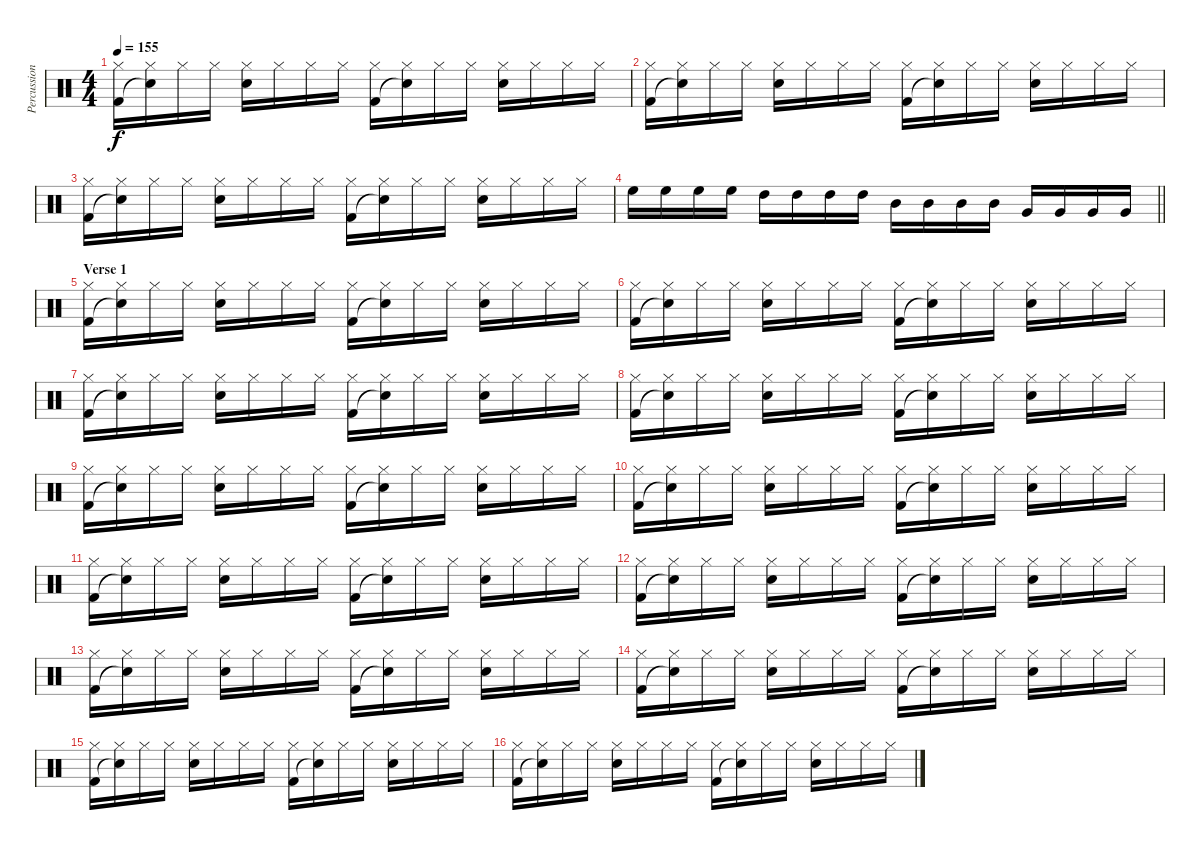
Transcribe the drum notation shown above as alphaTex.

\track ("Percussion" "Percussion") {instrument percussion}
\staff {score}
\articulation defaults
\ts (4 4)
\tempo 155
\clef neutral
\ks c
("Hi-Hat (closed)" "Kick (hit) 2").16{dy f} ("Hi-Hat (closed)" "Snare (hit)"{t}).16 "Hi-Hat (closed)".16 "Hi-Hat (closed)".16 ("Hi-Hat (closed)" "Snare (hit) 2").16 "Hi-Hat (closed)".16 "Hi-Hat (closed)".16 "Hi-Hat (closed)".16 ("Hi-Hat (closed)" "Kick (hit) 2").16 ("Hi-Hat (closed)" "Snare (hit)"{t}).16 "Hi-Hat (closed)".16 "Hi-Hat (closed)".16 ("Hi-Hat (closed)" "Snare (hit) 2").16 "Hi-Hat (closed)".16 "Hi-Hat (closed)".16 "Hi-Hat (closed)".16 |
("Hi-Hat (closed)" "Kick (hit) 2").16 ("Hi-Hat (closed)" "Snare (hit)"{t}).16 "Hi-Hat (closed)".16 "Hi-Hat (closed)".16 ("Hi-Hat (closed)" "Snare (hit) 2").16 "Hi-Hat (closed)".16 "Hi-Hat (closed)".16 "Hi-Hat (closed)".16 ("Hi-Hat (closed)" "Kick (hit) 2").16 ("Hi-Hat (closed)" "Snare (hit)"{t}).16 "Hi-Hat (closed)".16 "Hi-Hat (closed)".16 ("Hi-Hat (closed)" "Snare (hit) 2").16 "Hi-Hat (closed)".16 "Hi-Hat (closed)".16 "Hi-Hat (closed)".16 |
("Hi-Hat (closed)" "Kick (hit) 2").16 ("Hi-Hat (closed)" "Snare (hit)"{t}).16 "Hi-Hat (closed)".16 "Hi-Hat (closed)".16 ("Hi-Hat (closed)" "Snare (hit) 2").16 "Hi-Hat (closed)".16 "Hi-Hat (closed)".16 "Hi-Hat (closed)".16 ("Hi-Hat (closed)" "Kick (hit) 2").16 ("Hi-Hat (closed)" "Snare (hit)"{t}).16 "Hi-Hat (closed)".16 "Hi-Hat (closed)".16 ("Hi-Hat (closed)" "Snare (hit) 2").16 "Hi-Hat (closed)".16 "Hi-Hat (closed)".16 "Hi-Hat (closed)".16 |
\barLineRight lightlight "High Floor Tom (hit)".16 "High Floor Tom (hit)".16 "High Floor Tom (hit)".16 "High Floor Tom (hit)".16 "High Tom (hit)".16 "High Tom (hit)".16 "High Tom (hit)".16 "High Tom (hit)".16 "Mid Tom (hit)".16 "Mid Tom (hit)".16 "Mid Tom (hit)".16 "Mid Tom (hit)".16 "Very Low Tom (hit)".16 "Very Low Tom (hit)".16 "Very Low Tom (hit)".16 "Very Low Tom (hit)".16
|
\section ("" "Verse 1")
("Hi-Hat (closed)" "Kick (hit) 2").16 ("Hi-Hat (closed)" "Snare (hit)"{t}).16 "Hi-Hat (closed)".16 "Hi-Hat (closed)".16 ("Hi-Hat (closed)" "Snare (hit) 2").16 "Hi-Hat (closed)".16 "Hi-Hat (closed)".16 "Hi-Hat (closed)".16 ("Hi-Hat (closed)" "Kick (hit) 2").16 ("Hi-Hat (closed)" "Snare (hit)"{t}).16 "Hi-Hat (closed)".16 "Hi-Hat (closed)".16 ("Hi-Hat (closed)" "Snare (hit) 2").16 "Hi-Hat (closed)".16 "Hi-Hat (closed)".16 "Hi-Hat (closed)".16 |
("Hi-Hat (closed)" "Kick (hit) 2").16 ("Hi-Hat (closed)" "Snare (hit)"{t}).16 "Hi-Hat (closed)".16 "Hi-Hat (closed)".16 ("Hi-Hat (closed)" "Snare (hit) 2").16 "Hi-Hat (closed)".16 "Hi-Hat (closed)".16 "Hi-Hat (closed)".16 ("Hi-Hat (closed)" "Kick (hit) 2").16 ("Hi-Hat (closed)" "Snare (hit)"{t}).16 "Hi-Hat (closed)".16 "Hi-Hat (closed)".16 ("Hi-Hat (closed)" "Snare (hit) 2").16 "Hi-Hat (closed)".16 "Hi-Hat (closed)".16 "Hi-Hat (closed)".16 |
("Hi-Hat (closed)" "Kick (hit) 2").16 ("Hi-Hat (closed)" "Snare (hit)"{t}).16 "Hi-Hat (closed)".16 "Hi-Hat (closed)".16 ("Hi-Hat (closed)" "Snare (hit) 2").16 "Hi-Hat (closed)".16 "Hi-Hat (closed)".16 "Hi-Hat (closed)".16 ("Hi-Hat (closed)" "Kick (hit) 2").16 ("Hi-Hat (closed)" "Snare (hit)"{t}).16 "Hi-Hat (closed)".16 "Hi-Hat (closed)".16 ("Hi-Hat (closed)" "Snare (hit) 2").16 "Hi-Hat (closed)".16 "Hi-Hat (closed)".16 "Hi-Hat (closed)".16 |
("Hi-Hat (closed)" "Kick (hit) 2").16 ("Hi-Hat (closed)" "Snare (hit)"{t}).16 "Hi-Hat (closed)".16 "Hi-Hat (closed)".16 ("Hi-Hat (closed)" "Snare (hit) 2").16 "Hi-Hat (closed)".16 "Hi-Hat (closed)".16 "Hi-Hat (closed)".16 ("Hi-Hat (closed)" "Kick (hit) 2").16 ("Hi-Hat (closed)" "Snare (hit)"{t}).16 "Hi-Hat (closed)".16 "Hi-Hat (closed)".16 ("Hi-Hat (closed)" "Snare (hit) 2").16 "Hi-Hat (closed)".16 "Hi-Hat (closed)".16 "Hi-Hat (closed)".16 |
("Hi-Hat (closed)" "Kick (hit) 2").16 ("Hi-Hat (closed)" "Snare (hit)"{t}).16 "Hi-Hat (closed)".16 "Hi-Hat (closed)".16 ("Hi-Hat (closed)" "Snare (hit) 2").16 "Hi-Hat (closed)".16 "Hi-Hat (closed)".16 "Hi-Hat (closed)".16 ("Hi-Hat (closed)" "Kick (hit) 2").16 ("Hi-Hat (closed)" "Snare (hit)"{t}).16 "Hi-Hat (closed)".16 "Hi-Hat (closed)".16 ("Hi-Hat (closed)" "Snare (hit) 2").16 "Hi-Hat (closed)".16 "Hi-Hat (closed)".16 "Hi-Hat (closed)".16 |
("Hi-Hat (closed)" "Kick (hit) 2").16 ("Hi-Hat (closed)" "Snare (hit)"{t}).16 "Hi-Hat (closed)".16 "Hi-Hat (closed)".16 ("Hi-Hat (closed)" "Snare (hit) 2").16 "Hi-Hat (closed)".16 "Hi-Hat (closed)".16 "Hi-Hat (closed)".16 ("Hi-Hat (closed)" "Kick (hit) 2").16 ("Hi-Hat (closed)" "Snare (hit)"{t}).16 "Hi-Hat (closed)".16 "Hi-Hat (closed)".16 ("Hi-Hat (closed)" "Snare (hit) 2").16 "Hi-Hat (closed)".16 "Hi-Hat (closed)".16 "Hi-Hat (closed)".16 |
("Hi-Hat (closed)" "Kick (hit) 2").16 ("Hi-Hat (closed)" "Snare (hit)"{t}).16 "Hi-Hat (closed)".16 "Hi-Hat (closed)".16 ("Hi-Hat (closed)" "Snare (hit) 2").16 "Hi-Hat (closed)".16 "Hi-Hat (closed)".16 "Hi-Hat (closed)".16 ("Hi-Hat (closed)" "Kick (hit) 2").16 ("Hi-Hat (closed)" "Snare (hit)"{t}).16 "Hi-Hat (closed)".16 "Hi-Hat (closed)".16 ("Hi-Hat (closed)" "Snare (hit) 2").16 "Hi-Hat (closed)".16 "Hi-Hat (closed)".16 "Hi-Hat (closed)".16 |
("Hi-Hat (closed)" "Kick (hit) 2").16 ("Hi-Hat (closed)" "Snare (hit)"{t}).16 "Hi-Hat (closed)".16 "Hi-Hat (closed)".16 ("Hi-Hat (closed)" "Snare (hit) 2").16 "Hi-Hat (closed)".16 "Hi-Hat (closed)".16 "Hi-Hat (closed)".16 ("Hi-Hat (closed)" "Kick (hit) 2").16 ("Hi-Hat (closed)" "Snare (hit)"{t}).16 "Hi-Hat (closed)".16 "Hi-Hat (closed)".16 ("Hi-Hat (closed)" "Snare (hit) 2").16 "Hi-Hat (closed)".16 "Hi-Hat (closed)".16 "Hi-Hat (closed)".16 |
("Hi-Hat (closed)" "Kick (hit) 2").16 ("Hi-Hat (closed)" "Snare (hit)"{t}).16 "Hi-Hat (closed)".16 "Hi-Hat (closed)".16 ("Hi-Hat (closed)" "Snare (hit) 2").16 "Hi-Hat (closed)".16 "Hi-Hat (closed)".16 "Hi-Hat (closed)".16 ("Hi-Hat (closed)" "Kick (hit) 2").16 ("Hi-Hat (closed)" "Snare (hit)"{t}).16 "Hi-Hat (closed)".16 "Hi-Hat (closed)".16 ("Hi-Hat (closed)" "Snare (hit) 2").16 "Hi-Hat (closed)".16 "Hi-Hat (closed)".16 "Hi-Hat (closed)".16 |
("Hi-Hat (closed)" "Kick (hit) 2").16 ("Hi-Hat (closed)" "Snare (hit)"{t}).16 "Hi-Hat (closed)".16 "Hi-Hat (closed)".16 ("Hi-Hat (closed)" "Snare (hit) 2").16 "Hi-Hat (closed)".16 "Hi-Hat (closed)".16 "Hi-Hat (closed)".16 ("Hi-Hat (closed)" "Kick (hit) 2").16 ("Hi-Hat (closed)" "Snare (hit)"{t}).16 "Hi-Hat (closed)".16 "Hi-Hat (closed)".16 ("Hi-Hat (closed)" "Snare (hit) 2").16 "Hi-Hat (closed)".16 "Hi-Hat (closed)".16 "Hi-Hat (closed)".16 |
("Hi-Hat (closed)" "Kick (hit) 2").16 ("Hi-Hat (closed)" "Snare (hit)"{t}).16 "Hi-Hat (closed)".16 "Hi-Hat (closed)".16 ("Hi-Hat (closed)" "Snare (hit) 2").16 "Hi-Hat (closed)".16 "Hi-Hat (closed)".16 "Hi-Hat (closed)".16 ("Hi-Hat (closed)" "Kick (hit) 2").16 ("Hi-Hat (closed)" "Snare (hit)"{t}).16 "Hi-Hat (closed)".16 "Hi-Hat (closed)".16 ("Hi-Hat (closed)" "Snare (hit) 2").16 "Hi-Hat (closed)".16 "Hi-Hat (closed)".16 "Hi-Hat (closed)".16 |
("Hi-Hat (closed)" "Kick (hit) 2").16 ("Hi-Hat (closed)" "Snare (hit)"{t}).16 "Hi-Hat (closed)".16 "Hi-Hat (closed)".16 ("Hi-Hat (closed)" "Snare (hit) 2").16 "Hi-Hat (closed)".16 "Hi-Hat (closed)".16 "Hi-Hat (closed)".16 ("Hi-Hat (closed)" "Kick (hit) 2").16 ("Hi-Hat (closed)" "Snare (hit)"{t}).16 "Hi-Hat (closed)".16 "Hi-Hat (closed)".16 ("Hi-Hat (closed)" "Snare (hit) 2").16 "Hi-Hat (closed)".16 "Hi-Hat (closed)".16 "Hi-Hat (closed)".16
